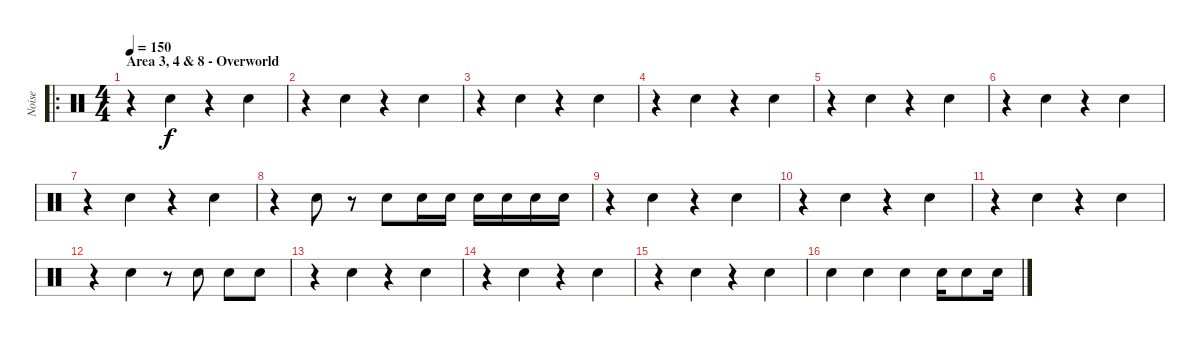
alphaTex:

\track ("Noise" "Noise") {instrument percussion}
\staff {score}
\articulation defaults
\ro
\ts (4 4)
\section ("" "Area 3, 4 & 8 - Overworld")
\tempo 150
\clef neutral
\ks c
r.4{dy f volume 13} "Snare (hit) 2".4 r.4 "Snare (hit) 2".4 |
r.4 "Snare (hit) 2".4 r.4 "Snare (hit) 2".4 |
r.4 "Snare (hit) 2".4 r.4 "Snare (hit) 2".4 |
r.4 "Snare (hit) 2".4 r.4 "Snare (hit) 2".4 |
r.4 "Snare (hit) 2".4 r.4 "Snare (hit) 2".4 |
r.4 "Snare (hit) 2".4 r.4 "Snare (hit) 2".4 |
r.4 "Snare (hit) 2".4 r.4 "Snare (hit) 2".4 |
r.4 "Snare (hit) 2".8 r.8 "Snare (hit) 2".8 "Snare (hit) 2".16 "Snare (hit) 2".16 "Snare (hit) 2".16 "Snare (hit) 2".16 "Snare (hit) 2".16 "Snare (hit) 2".16 |
r.4 "Snare (hit) 2".4 r.4 "Snare (hit) 2".4 |
r.4 "Snare (hit) 2".4 r.4 "Snare (hit) 2".4 |
r.4 "Snare (hit) 2".4 r.4 "Snare (hit) 2".4 |
r.4 "Snare (hit) 2".4 r.8 "Snare (hit) 2".8 "Snare (hit) 2".8 "Snare (hit) 2".8 |
r.4 "Snare (hit) 2".4 r.4 "Snare (hit) 2".4 |
r.4 "Snare (hit) 2".4 r.4 "Snare (hit) 2".4 |
r.4 "Snare (hit) 2".4 r.4 "Snare (hit) 2".4 |
"Snare (hit) 2".4 "Snare (hit) 2".4 "Snare (hit) 2".4 "Snare (hit) 2".16 "Snare (hit) 2".8 "Snare (hit) 2".16
